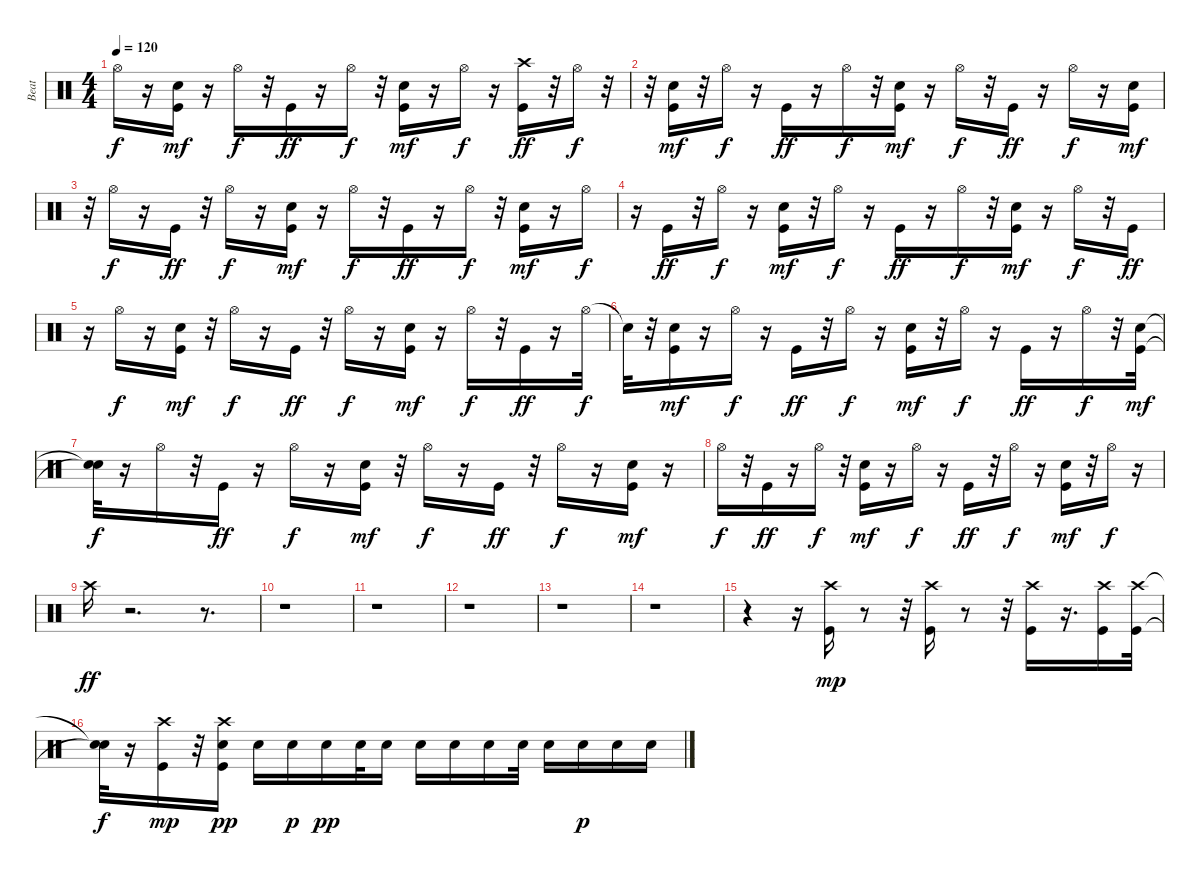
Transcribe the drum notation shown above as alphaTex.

\track ("Beat" "Beat") {instrument percussion}
\staff {score}
\articulation defaults
\ts (4 4)
\tempo 120
\clef neutral
\ks c "Hi-Hat (open)".16{dy f}
r.16 ("Kick (hit)" "Hand Clap (hit)").16{dy mf} r.16 "Hi-Hat (open)".16{dy f} r.32 "Kick (hit)".16{dy ff} r.16 "Hi-Hat (open)".16{dy f} r.32 ("Kick (hit)" "Hand Clap (hit)").16{dy mf} r.16 "Hi-Hat (open)".16{dy f} r.16 ("Kick (hit)" "Crash high (hit)").16{dy ff} r.32 "Hi-Hat (open)".16{dy f} r.32 |
r.32 ("Kick (hit)" "Hand Clap (hit)").16{dy mf} r.32 "Hi-Hat (open)".16{dy f} r.16 "Kick (hit)".16{dy ff} r.16 "Hi-Hat (open)".16{dy f} r.32 ("Kick (hit)" "Hand Clap (hit)").16{dy mf} r.16 "Hi-Hat (open)".16{dy f} r.32 "Kick (hit)".16{dy ff} r.16 "Hi-Hat (open)".16{dy f} r.16 ("Kick (hit)" "Hand Clap (hit)").16{dy mf} |
r.32 "Hi-Hat (open)".16{dy f} r.16 "Kick (hit)".16{dy ff} r.32 "Hi-Hat (open)".16{dy f} r.16 ("Kick (hit)" "Hand Clap (hit)").16{dy mf} r.16 "Hi-Hat (open)".16{dy f} r.32 "Kick (hit)".16{dy ff} r.16 "Hi-Hat (open)".16{dy f} r.32 ("Kick (hit)" "Hand Clap (hit)").16{dy mf} r.16 "Hi-Hat (open)".16{dy f} |
r.16 "Kick (hit)".16{dy ff} r.32 "Hi-Hat (open)".16{dy f} r.16 ("Kick (hit)" "Hand Clap (hit)").16{dy mf} r.32 "Hi-Hat (open)".16{dy f} r.16 "Kick (hit)".16{dy ff} r.16 "Hi-Hat (open)".16{dy f} r.32 ("Kick (hit)" "Hand Clap (hit)").16{dy mf} r.16 "Hi-Hat (open)".16{dy f} r.32 "Kick (hit)".16{dy ff} |
r.16 "Hi-Hat (open)".16{dy f} r.16 ("Kick (hit)" "Hand Clap (hit)").16{dy mf} r.32 "Hi-Hat (open)".16{dy f} r.16 "Kick (hit)".16{dy ff} r.32 "Hi-Hat (open)".16{dy f} r.16 ("Kick (hit)" "Hand Clap (hit)").16{dy mf} r.16 "Hi-Hat (open)".16{dy f} r.32 "Kick (hit)".16{dy ff} r.16 "Hi-Hat (open)".32{dy f} |
"Snare (hit)"{t}.32 r.32 ("Kick (hit)" "Hand Clap (hit)").16{dy mf} r.16 "Hi-Hat (open)".16{dy f} r.16 "Kick (hit)".16{dy ff} r.32 "Hi-Hat (open)".16{dy f} r.16 ("Kick (hit)" "Hand Clap (hit)").16{dy mf} r.32 "Hi-Hat (open)".16{dy f} r.16 "Kick (hit)".16{dy ff} r.16 "Hi-Hat (open)".16{dy f} r.32 ("Kick (hit)" "Hand Clap (hit)").32{dy mf} |
("Snare (hit)"{t} "Snare (hit)"{t}).32{dy f} r.16 "Hi-Hat (open)".16 r.32 "Kick (hit)".16{dy ff} r.16 "Hi-Hat (open)".16{dy f} r.16 ("Kick (hit)" "Hand Clap (hit)").16{dy mf} r.32 "Hi-Hat (open)".16{dy f} r.16 "Kick (hit)".16{dy ff} r.32 "Hi-Hat (open)".16{dy f} r.16 ("Kick (hit)" "Hand Clap (hit)").16{dy mf} r.16 |
"Hi-Hat (open)".16{dy f} r.32 "Kick (hit)".16{dy ff} r.16 "Hi-Hat (open)".16{dy f} r.32 ("Kick (hit)" "Hand Clap (hit)").16{dy mf} r.16 "Hi-Hat (open)".16{dy f} r.16 "Kick (hit)".16{dy ff} r.32 "Hi-Hat (open)".16{dy f} r.16 ("Kick (hit)" "Hand Clap (hit)").16{dy mf} r.32 "Hi-Hat (open)".16{dy f} r.16 |
"Crash high (hit)".16{dy ff} r.2{d} r.8{d} |
r.1 |
r.1 |
r.1 |
r.1 |
r.1 |
r.4 r.16 ("Kick (hit)" "Crash high (hit)").16{dy mp} r.8 r.32 ("Kick (hit)" "Crash high (hit)").16 r.8 r.32 ("Kick (hit)" "Crash high (hit)").16 r.16{d} ("Kick (hit)" "Crash high (hit)").16 ("Kick (hit)" "Crash high (hit)").32 |
("Snare (hit)"{t} "Snare (hit)"{t}).32{dy f} r.16 ("Kick (hit)" "Crash high (hit)").16{dy mp} r.32 ("Kick (hit)" "Crash high (hit)" "Snare (hit) 2").16{dy pp} "Snare (hit) 2".16 "Snare (hit) 2".16{dy p} "Snare (hit) 2".16{dy pp} "Snare (hit) 2".32 "Snare (hit) 2".16 "Snare (hit) 2".16 "Snare (hit) 2".16 "Snare (hit) 2".16 "Snare (hit) 2".32 "Snare (hit) 2".16 "Snare (hit) 2".16{dy p} "Snare (hit) 2".16 "Snare (hit) 2".16
